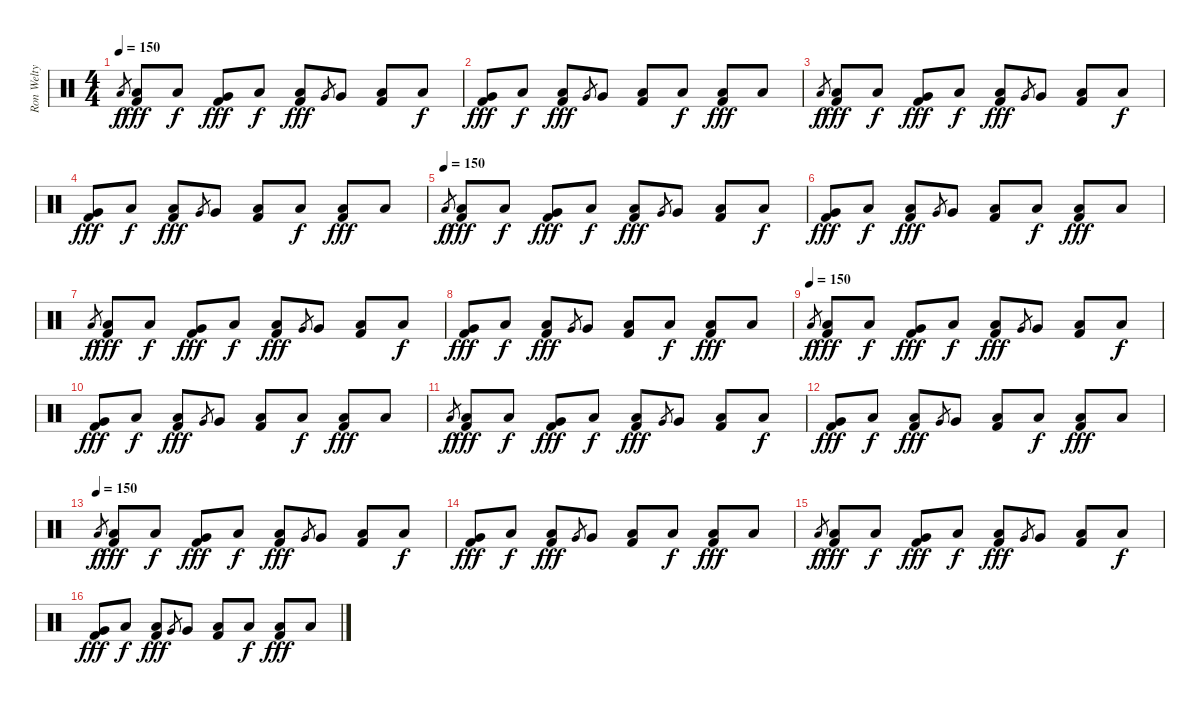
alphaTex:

\track ("Ron Welty" "Ron Welty") {instrument percussion}
\staff {score}
\articulation defaults
\ts (4 4)
\tempo 150
\clef neutral
\ks c "Low Floor Tom (hit)".8{gr dy f}
("Low Floor Tom (hit)" "Kick (hit) 2").8{dy fff} "Low Floor Tom (hit)".8{dy f} ("Very Low Tom (hit)" "Kick (hit) 2").8{dy fff} "Low Floor Tom (hit)".8{dy f} ("Low Floor Tom (hit)" "Kick (hit) 2").8{dy fff} "Very Low Tom (hit)".8{gr} "Very Low Tom (hit)".8 ("Low Floor Tom (hit)" "Kick (hit) 2").8 "Low Floor Tom (hit)".8{dy f} |
("Very Low Tom (hit)" "Kick (hit) 2").8{dy fff} "Low Floor Tom (hit)".8{dy f} ("Low Floor Tom (hit)" "Kick (hit) 2").8{dy fff} "Very Low Tom (hit)".8{gr} "Very Low Tom (hit)".8 ("Low Floor Tom (hit)" "Kick (hit) 2").8 "Low Floor Tom (hit)".8{dy f} ("Low Floor Tom (hit)" "Kick (hit) 2").8{dy fff} "Low Floor Tom (hit)".8 |
"Low Floor Tom (hit)".8{gr dy f} ("Low Floor Tom (hit)" "Kick (hit) 2").8{dy fff} "Low Floor Tom (hit)".8{dy f} ("Very Low Tom (hit)" "Kick (hit) 2").8{dy fff} "Low Floor Tom (hit)".8{dy f} ("Low Floor Tom (hit)" "Kick (hit) 2").8{dy fff} "Very Low Tom (hit)".8{gr} "Very Low Tom (hit)".8 ("Low Floor Tom (hit)" "Kick (hit) 2").8 "Low Floor Tom (hit)".8{dy f} |
("Very Low Tom (hit)" "Kick (hit) 2").8{dy fff} "Low Floor Tom (hit)".8{dy f} ("Low Floor Tom (hit)" "Kick (hit) 2").8{dy fff} "Very Low Tom (hit)".8{gr} "Very Low Tom (hit)".8 ("Low Floor Tom (hit)" "Kick (hit) 2").8 "Low Floor Tom (hit)".8{dy f} ("Low Floor Tom (hit)" "Kick (hit) 2").8{dy fff} "Low Floor Tom (hit)".8 |
\tempo (150)
"Low Floor Tom (hit)".8{gr dy f} ("Low Floor Tom (hit)" "Kick (hit) 2").8{dy fff} "Low Floor Tom (hit)".8{dy f} ("Very Low Tom (hit)" "Kick (hit) 2").8{dy fff} "Low Floor Tom (hit)".8{dy f} ("Low Floor Tom (hit)" "Kick (hit) 2").8{dy fff} "Very Low Tom (hit)".8{gr} "Very Low Tom (hit)".8 ("Low Floor Tom (hit)" "Kick (hit) 2").8 "Low Floor Tom (hit)".8{dy f} |
("Very Low Tom (hit)" "Kick (hit) 2").8{dy fff} "Low Floor Tom (hit)".8{dy f} ("Low Floor Tom (hit)" "Kick (hit) 2").8{dy fff} "Very Low Tom (hit)".8{gr} "Very Low Tom (hit)".8 ("Low Floor Tom (hit)" "Kick (hit) 2").8 "Low Floor Tom (hit)".8{dy f} ("Low Floor Tom (hit)" "Kick (hit) 2").8{dy fff} "Low Floor Tom (hit)".8 |
"Low Floor Tom (hit)".8{gr dy f} ("Low Floor Tom (hit)" "Kick (hit) 2").8{dy fff} "Low Floor Tom (hit)".8{dy f} ("Very Low Tom (hit)" "Kick (hit) 2").8{dy fff} "Low Floor Tom (hit)".8{dy f} ("Low Floor Tom (hit)" "Kick (hit) 2").8{dy fff} "Very Low Tom (hit)".8{gr} "Very Low Tom (hit)".8 ("Low Floor Tom (hit)" "Kick (hit) 2").8 "Low Floor Tom (hit)".8{dy f} |
("Very Low Tom (hit)" "Kick (hit) 2").8{dy fff} "Low Floor Tom (hit)".8{dy f} ("Low Floor Tom (hit)" "Kick (hit) 2").8{dy fff} "Very Low Tom (hit)".8{gr} "Very Low Tom (hit)".8 ("Low Floor Tom (hit)" "Kick (hit) 2").8 "Low Floor Tom (hit)".8{dy f} ("Low Floor Tom (hit)" "Kick (hit) 2").8{dy fff} "Low Floor Tom (hit)".8 |
\tempo (150)
"Low Floor Tom (hit)".8{gr dy f} ("Low Floor Tom (hit)" "Kick (hit) 2").8{dy fff} "Low Floor Tom (hit)".8{dy f} ("Very Low Tom (hit)" "Kick (hit) 2").8{dy fff} "Low Floor Tom (hit)".8{dy f} ("Low Floor Tom (hit)" "Kick (hit) 2").8{dy fff} "Very Low Tom (hit)".8{gr} "Very Low Tom (hit)".8 ("Low Floor Tom (hit)" "Kick (hit) 2").8 "Low Floor Tom (hit)".8{dy f} |
("Very Low Tom (hit)" "Kick (hit) 2").8{dy fff} "Low Floor Tom (hit)".8{dy f} ("Low Floor Tom (hit)" "Kick (hit) 2").8{dy fff} "Very Low Tom (hit)".8{gr} "Very Low Tom (hit)".8 ("Low Floor Tom (hit)" "Kick (hit) 2").8 "Low Floor Tom (hit)".8{dy f} ("Low Floor Tom (hit)" "Kick (hit) 2").8{dy fff} "Low Floor Tom (hit)".8 |
"Low Floor Tom (hit)".8{gr dy f} ("Low Floor Tom (hit)" "Kick (hit) 2").8{dy fff} "Low Floor Tom (hit)".8{dy f} ("Very Low Tom (hit)" "Kick (hit) 2").8{dy fff} "Low Floor Tom (hit)".8{dy f} ("Low Floor Tom (hit)" "Kick (hit) 2").8{dy fff} "Very Low Tom (hit)".8{gr} "Very Low Tom (hit)".8 ("Low Floor Tom (hit)" "Kick (hit) 2").8 "Low Floor Tom (hit)".8{dy f} |
("Very Low Tom (hit)" "Kick (hit) 2").8{dy fff} "Low Floor Tom (hit)".8{dy f} ("Low Floor Tom (hit)" "Kick (hit) 2").8{dy fff} "Very Low Tom (hit)".8{gr} "Very Low Tom (hit)".8 ("Low Floor Tom (hit)" "Kick (hit) 2").8 "Low Floor Tom (hit)".8{dy f} ("Low Floor Tom (hit)" "Kick (hit) 2").8{dy fff} "Low Floor Tom (hit)".8 |
\tempo (150)
"Low Floor Tom (hit)".8{gr dy f} ("Low Floor Tom (hit)" "Kick (hit) 2").8{dy fff} "Low Floor Tom (hit)".8{dy f} ("Very Low Tom (hit)" "Kick (hit) 2").8{dy fff} "Low Floor Tom (hit)".8{dy f} ("Low Floor Tom (hit)" "Kick (hit) 2").8{dy fff} "Very Low Tom (hit)".8{gr} "Very Low Tom (hit)".8 ("Low Floor Tom (hit)" "Kick (hit) 2").8 "Low Floor Tom (hit)".8{dy f} |
("Very Low Tom (hit)" "Kick (hit) 2").8{dy fff} "Low Floor Tom (hit)".8{dy f} ("Low Floor Tom (hit)" "Kick (hit) 2").8{dy fff} "Very Low Tom (hit)".8{gr} "Very Low Tom (hit)".8 ("Low Floor Tom (hit)" "Kick (hit) 2").8 "Low Floor Tom (hit)".8{dy f} ("Low Floor Tom (hit)" "Kick (hit) 2").8{dy fff} "Low Floor Tom (hit)".8 |
"Low Floor Tom (hit)".8{gr dy f} ("Low Floor Tom (hit)" "Kick (hit) 2").8{dy fff} "Low Floor Tom (hit)".8{dy f} ("Very Low Tom (hit)" "Kick (hit) 2").8{dy fff} "Low Floor Tom (hit)".8{dy f} ("Low Floor Tom (hit)" "Kick (hit) 2").8{dy fff} "Very Low Tom (hit)".8{gr} "Very Low Tom (hit)".8 ("Low Floor Tom (hit)" "Kick (hit) 2").8 "Low Floor Tom (hit)".8{dy f} |
("Very Low Tom (hit)" "Kick (hit) 2").8{dy fff} "Low Floor Tom (hit)".8{dy f} ("Low Floor Tom (hit)" "Kick (hit) 2").8{dy fff} "Very Low Tom (hit)".8{gr} "Very Low Tom (hit)".8 ("Low Floor Tom (hit)" "Kick (hit) 2").8 "Low Floor Tom (hit)".8{dy f} ("Low Floor Tom (hit)" "Kick (hit) 2").8{dy fff} "Low Floor Tom (hit)".8
